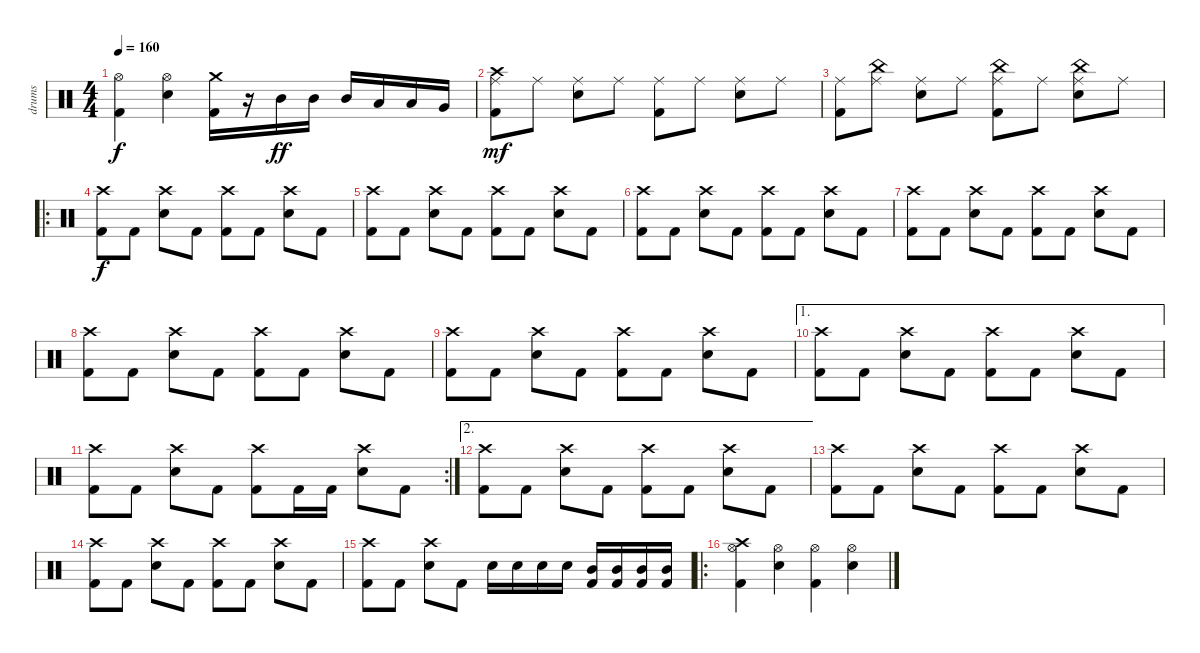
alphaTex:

\track ("drums" "drums") {instrument percussion}
\staff {score}
\articulation defaults
\ts (4 4)
\tempo 160
\clef neutral
\ks c
("Kick (hit) 2" "Hi-Hat (open)").4{dy f} ("Hi-Hat (open)" "Snare (hit) 2").4 ("Kick (hit) 2" "Crash medium (hit)").16 r.16 "Mid Tom (hit)".16{dy ff} "Mid Tom (hit)".16 "Mid Tom (hit)".16 "Low Tom (hit)".16 "Low Tom (hit)".16 "Very Low Tom (hit)".16 |
("Kick (hit) 2" "Crash high (hit)" "Ride (middle)").8{dy mf} "Ride (middle)".8 ("Ride (middle)" "Snare (hit) 2").8 "Ride (middle)".8 ("Kick (hit) 2" "Ride (middle)").8 "Ride (middle)".8 ("Ride (middle)" "Snare (hit) 2").8 "Ride (middle)".8 |
("Kick (hit) 2" "Ride (middle)").8 ("China (hit)" "Ride (middle)").8 ("Ride (middle)" "Snare (hit) 2").8 "Ride (middle)".8 ("Kick (hit) 2" "China (hit)" "Ride (middle)").8 "Ride (middle)".8 ("China (hit)" "Ride (middle)" "Snare (hit) 2").8 "Ride (middle)".8 |
\ro
("Kick (hit) 2" "Crash high (hit)").8{dy f} "Kick (hit) 2".8 ("Crash high (hit)" "Snare (hit) 2").8 "Kick (hit) 2".8 ("Kick (hit) 2" "Crash high (hit)").8 "Kick (hit) 2".8 ("Crash high (hit)" "Snare (hit) 2").8 "Kick (hit) 2".8 |
("Kick (hit) 2" "Crash high (hit)").8 "Kick (hit) 2".8 ("Crash high (hit)" "Snare (hit) 2").8 "Kick (hit) 2".8 ("Kick (hit) 2" "Crash high (hit)").8 "Kick (hit) 2".8 ("Crash high (hit)" "Snare (hit) 2").8 "Kick (hit) 2".8 |
("Kick (hit) 2" "Crash high (hit)").8 "Kick (hit) 2".8 ("Crash high (hit)" "Snare (hit) 2").8 "Kick (hit) 2".8 ("Kick (hit) 2" "Crash high (hit)").8 "Kick (hit) 2".8 ("Crash high (hit)" "Snare (hit) 2").8 "Kick (hit) 2".8 |
("Kick (hit) 2" "Crash high (hit)").8 "Kick (hit) 2".8 ("Crash high (hit)" "Snare (hit) 2").8 "Kick (hit) 2".8 ("Kick (hit) 2" "Crash high (hit)").8 "Kick (hit) 2".8 ("Crash high (hit)" "Snare (hit) 2").8 "Kick (hit) 2".8 |
("Kick (hit) 2" "Crash high (hit)").8 "Kick (hit) 2".8 ("Crash high (hit)" "Snare (hit) 2").8 "Kick (hit) 2".8 ("Kick (hit) 2" "Crash high (hit)").8 "Kick (hit) 2".8 ("Crash high (hit)" "Snare (hit) 2").8 "Kick (hit) 2".8 |
("Kick (hit) 2" "Crash high (hit)").8 "Kick (hit) 2".8 ("Crash high (hit)" "Snare (hit) 2").8 "Kick (hit) 2".8 ("Kick (hit) 2" "Crash high (hit)").8 "Kick (hit) 2".8 ("Crash high (hit)" "Snare (hit) 2").8 "Kick (hit) 2".8 |
\ae 1
("Kick (hit) 2" "Crash high (hit)").8 "Kick (hit) 2".8 ("Crash high (hit)" "Snare (hit) 2").8 "Kick (hit) 2".8 ("Kick (hit) 2" "Crash high (hit)").8 "Kick (hit) 2".8 ("Crash high (hit)" "Snare (hit) 2").8 "Kick (hit) 2".8 |
\rc 2
("Kick (hit) 2" "Crash high (hit)").8 "Kick (hit) 2".8 ("Crash high (hit)" "Snare (hit) 2").8 "Kick (hit) 2".8 ("Kick (hit) 2" "Crash high (hit)").8 "Kick (hit) 2".16 "Kick (hit) 2".16 ("Crash high (hit)" "Snare (hit) 2").8 "Kick (hit) 2".8 |
\ae 2
("Kick (hit) 2" "Crash high (hit)").8 "Kick (hit) 2".8 ("Crash high (hit)" "Snare (hit) 2").8 "Kick (hit) 2".8 ("Kick (hit) 2" "Crash high (hit)").8 "Kick (hit) 2".8 ("Crash high (hit)" "Snare (hit) 2").8 "Kick (hit) 2".8 |
("Kick (hit) 2" "Crash high (hit)").8 "Kick (hit) 2".8 ("Crash high (hit)" "Snare (hit) 2").8 "Kick (hit) 2".8 ("Kick (hit) 2" "Crash high (hit)").8 "Kick (hit) 2".8 ("Crash high (hit)" "Snare (hit) 2").8 "Kick (hit) 2".8 |
("Kick (hit) 2" "Crash high (hit)").8 "Kick (hit) 2".8 ("Crash high (hit)" "Snare (hit) 2").8 "Kick (hit) 2".8 ("Kick (hit) 2" "Crash high (hit)").8 "Kick (hit) 2".8 ("Crash high (hit)" "Snare (hit) 2").8 "Kick (hit) 2".8 |
("Kick (hit) 2" "Crash high (hit)").8 "Kick (hit) 2".8 ("Crash high (hit)" "Snare (hit) 2").8 "Kick (hit) 2".8 "Snare (hit) 2".16 "Snare (hit) 2".16 "Snare (hit) 2".16 "Snare (hit) 2".16 ("Kick (hit) 2" "Mid Tom (hit)").16 ("Kick (hit) 2" "Mid Tom (hit)").16 ("Kick (hit) 2" "Mid Tom (hit)").16 ("Kick (hit) 2" "Mid Tom (hit)").16 |
\ro
("Kick (hit) 2" "Crash high (hit)" "Hi-Hat (open)").4 ("Hi-Hat (open)" "Snare (hit) 2").4 ("Kick (hit) 2" "Hi-Hat (open)").4 ("Hi-Hat (open)" "Snare (hit) 2").4
